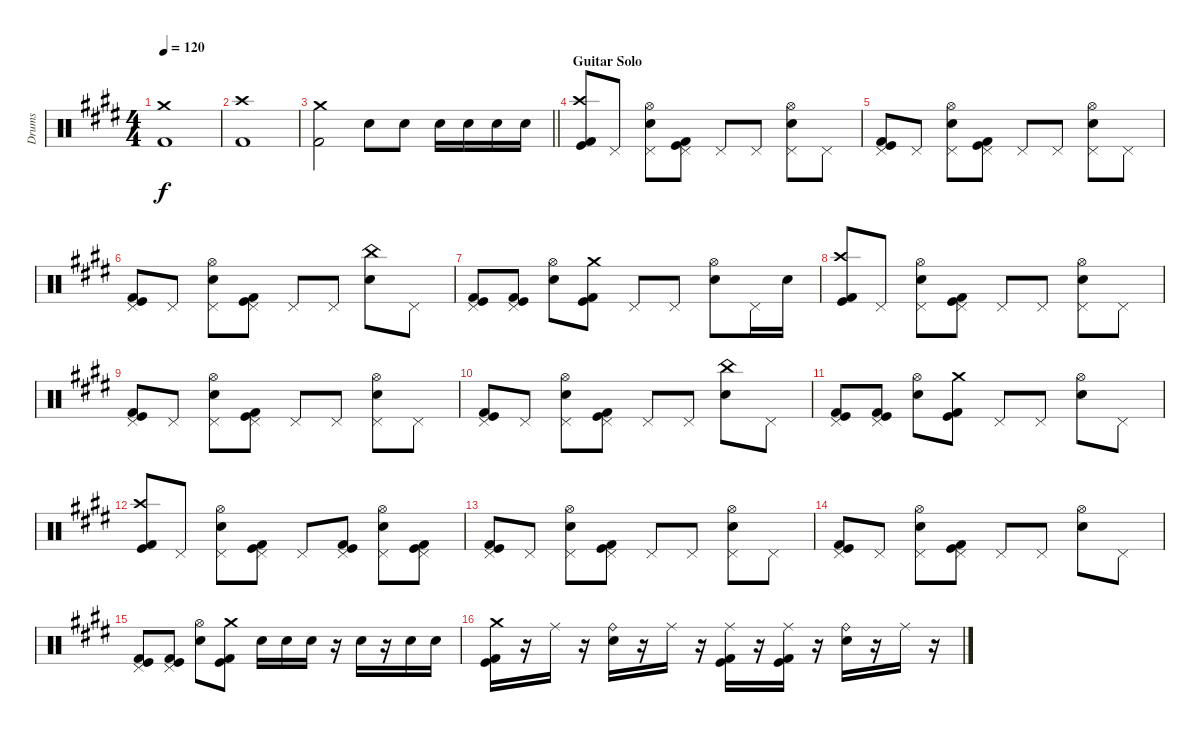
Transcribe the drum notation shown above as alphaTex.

\track ("Drums" "Drums") {instrument percussion}
\staff {score}
\articulation defaults
\ts (4 4)
\tempo 120
\clef neutral
\ks e
("Crash medium (hit)" "Kick (hit) 2").1{dy f} |
("Crash high (hit)" "Kick (hit) 2").1 |
\barLineRight lightlight
("Crash medium (hit)" "Kick (hit) 2").2 "Electric Snare (hit)".8 "Electric Snare (hit)".8 "Electric Snare (hit)".16 "Electric Snare (hit)".16 "Electric Snare (hit)".16 "Electric Snare (hit)".16 |
\section ("" "Guitar Solo")
("Crash high (hit)" "Kick (hit)" "Kick (hit) 2").8 "Pedal Hi-Hat (hit)".8 ("Pedal Hi-Hat (hit)" "Hi-Hat (open)" "Electric Snare (hit)").8 ("Pedal Hi-Hat (hit)" "Kick (hit)" "Kick (hit) 2").8 "Pedal Hi-Hat (hit)".8 "Pedal Hi-Hat (hit)".8 ("Pedal Hi-Hat (hit)" "Hi-Hat (open)" "Electric Snare (hit)").8 "Pedal Hi-Hat (hit)".8 |
("Pedal Hi-Hat (hit)" "Kick (hit)" "Kick (hit) 2").8 "Pedal Hi-Hat (hit)".8 ("Pedal Hi-Hat (hit)" "Hi-Hat (open)" "Electric Snare (hit)").8 ("Pedal Hi-Hat (hit)" "Kick (hit)" "Kick (hit) 2").8 "Pedal Hi-Hat (hit)".8 "Pedal Hi-Hat (hit)".8 ("Pedal Hi-Hat (hit)" "Hi-Hat (open)" "Electric Snare (hit)").8 "Pedal Hi-Hat (hit)".8 |
("Pedal Hi-Hat (hit)" "Kick (hit)" "Kick (hit) 2").8 "Pedal Hi-Hat (hit)".8 ("Pedal Hi-Hat (hit)" "Hi-Hat (open)" "Electric Snare (hit)").8 ("Pedal Hi-Hat (hit)" "Kick (hit)" "Kick (hit) 2").8 "Pedal Hi-Hat (hit)".8 "Pedal Hi-Hat (hit)".8 ("China (hit)" "Electric Snare (hit)").8 "Pedal Hi-Hat (hit)".8 |
("Pedal Hi-Hat (hit)" "Kick (hit)" "Kick (hit) 2").8 ("Pedal Hi-Hat (hit)" "Kick (hit) 2" "Kick (hit)").8 ("Hi-Hat (open)" "Electric Snare (hit)").8 ("Crash medium (hit)" "Kick (hit)" "Kick (hit) 2").8 "Pedal Hi-Hat (hit)".8 "Pedal Hi-Hat (hit)".8 ("Hi-Hat (open)" "Electric Snare (hit)").8 "Pedal Hi-Hat (hit)".16 "Electric Snare (hit)".16 |
("Crash high (hit)" "Kick (hit)" "Kick (hit) 2").8 "Pedal Hi-Hat (hit)".8 ("Pedal Hi-Hat (hit)" "Hi-Hat (open)" "Electric Snare (hit)").8 ("Pedal Hi-Hat (hit)" "Kick (hit)" "Kick (hit) 2").8 "Pedal Hi-Hat (hit)".8 "Pedal Hi-Hat (hit)".8 ("Pedal Hi-Hat (hit)" "Hi-Hat (open)" "Electric Snare (hit)").8 "Pedal Hi-Hat (hit)".8 |
("Pedal Hi-Hat (hit)" "Kick (hit)" "Kick (hit) 2").8 "Pedal Hi-Hat (hit)".8 ("Pedal Hi-Hat (hit)" "Hi-Hat (open)" "Electric Snare (hit)").8 ("Pedal Hi-Hat (hit)" "Kick (hit)" "Kick (hit) 2").8 "Pedal Hi-Hat (hit)".8 "Pedal Hi-Hat (hit)".8 ("Pedal Hi-Hat (hit)" "Hi-Hat (open)" "Electric Snare (hit)").8 "Pedal Hi-Hat (hit)".8 |
("Pedal Hi-Hat (hit)" "Kick (hit)" "Kick (hit) 2").8 "Pedal Hi-Hat (hit)".8 ("Pedal Hi-Hat (hit)" "Hi-Hat (open)" "Electric Snare (hit)").8 ("Pedal Hi-Hat (hit)" "Kick (hit)" "Kick (hit) 2").8 "Pedal Hi-Hat (hit)".8 "Pedal Hi-Hat (hit)".8 ("China (hit)" "Electric Snare (hit)").8 "Pedal Hi-Hat (hit)".8 |
("Pedal Hi-Hat (hit)" "Kick (hit)" "Kick (hit) 2").8 ("Pedal Hi-Hat (hit)" "Kick (hit) 2" "Kick (hit)").8 ("Hi-Hat (open)" "Electric Snare (hit)").8 ("Crash medium (hit)" "Kick (hit)" "Kick (hit) 2").8 "Pedal Hi-Hat (hit)".8 "Pedal Hi-Hat (hit)".8 ("Hi-Hat (open)" "Electric Snare (hit)").8 "Pedal Hi-Hat (hit)".8 |
("Crash high (hit)" "Kick (hit)" "Kick (hit) 2").8 "Pedal Hi-Hat (hit)".8 ("Pedal Hi-Hat (hit)" "Hi-Hat (open)" "Electric Snare (hit)").8 ("Pedal Hi-Hat (hit)" "Kick (hit)" "Kick (hit) 2").8 "Pedal Hi-Hat (hit)".8 ("Pedal Hi-Hat (hit)" "Kick (hit) 2" "Kick (hit)").8 ("Pedal Hi-Hat (hit)" "Hi-Hat (open)" "Electric Snare (hit)").8 ("Pedal Hi-Hat (hit)" "Kick (hit) 2" "Kick (hit)").8 |
("Pedal Hi-Hat (hit)" "Kick (hit)" "Kick (hit) 2").8 "Pedal Hi-Hat (hit)".8 ("Pedal Hi-Hat (hit)" "Hi-Hat (open)" "Electric Snare (hit)").8 ("Pedal Hi-Hat (hit)" "Kick (hit)" "Kick (hit) 2").8 "Pedal Hi-Hat (hit)".8 "Pedal Hi-Hat (hit)".8 ("Pedal Hi-Hat (hit)" "Hi-Hat (open)" "Electric Snare (hit)").8 "Pedal Hi-Hat (hit)".8 |
("Pedal Hi-Hat (hit)" "Kick (hit)" "Kick (hit) 2").8 "Pedal Hi-Hat (hit)".8 ("Pedal Hi-Hat (hit)" "Hi-Hat (open)" "Electric Snare (hit)").8 ("Pedal Hi-Hat (hit)" "Kick (hit)" "Kick (hit) 2").8 "Pedal Hi-Hat (hit)".8 "Pedal Hi-Hat (hit)".8 ("Hi-Hat (open)" "Electric Snare (hit)").8 "Pedal Hi-Hat (hit)".8 |
("Pedal Hi-Hat (hit)" "Kick (hit)" "Kick (hit) 2").8 ("Pedal Hi-Hat (hit)" "Kick (hit) 2" "Kick (hit)").8 ("Hi-Hat (open)" "Electric Snare (hit)").8 ("Crash medium (hit)" "Kick (hit)" "Kick (hit) 2").8 "Electric Snare (hit)".16 "Electric Snare (hit)".16 "Electric Snare (hit)".16 r.16 "Electric Snare (hit)".16 r.16 "Electric Snare (hit)".16 "Electric Snare (hit)".16 |
("Crash medium (hit)" "Kick (hit) 2" "Kick (hit)").16 r.16 "Ride (middle)".16 r.16 ("Ride (bell)" "Electric Snare (hit)").16 r.16 "Ride (middle)".16 r.16 ("Ride (middle)" "Kick (hit) 2" "Kick (hit)").16 r.16 ("Ride (middle)" "Kick (hit) 2" "Kick (hit)").16 r.16 ("Ride (bell)" "Electric Snare (hit)").16 r.16 "Ride (middle)".16 r.16
